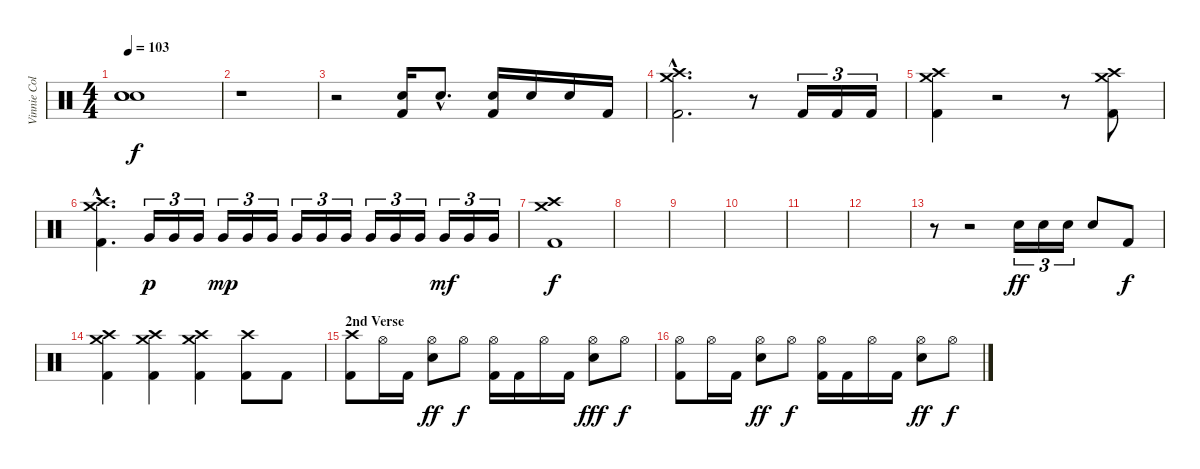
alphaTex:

\track ("Vinnie Colaiuta" "Vinnie Col") {instrument percussion}
\staff {score}
\articulation defaults
\ts (4 4)
\tempo 103
\clef neutral
\ks c
("Snare (hit)"{t} "Snare (hit)"{t} "Snare (hit)"{t}).1{dy f} |
r.1 |
r.2 ("Electric Snare (hit)" "Kick (hit) 2").16 "Electric Snare (hit)"{hac}.8{d} ("Electric Snare (hit)" "Kick (hit) 2").16 "Electric Snare (hit)".16 "Electric Snare (hit)".16 "Kick (hit) 2".16 |
("Crash high (hit)"{hac} "Crash medium (hit)"{hac} "Kick (hit) 2"{hac}).2{d} r.8 "Kick (hit) 2".16{tu (3 2)} "Kick (hit) 2".16{tu (3 2)} "Kick (hit) 2".16{tu (3 2)} |
("Crash high (hit)" "Crash medium (hit)" "Kick (hit) 2").4 r.2 r.8 ("Crash medium (hit)" "Crash high (hit)" "Kick (hit) 2").8 |
("Crash high (hit)"{hac} "Crash medium (hit)"{hac} "Kick (hit) 2"{hac}).4{d} "Very Low Tom (hit)".16{tu (3 2) dy p} "Very Low Tom (hit)".16{tu (3 2)} "Very Low Tom (hit)".16{tu (3 2)} "Very Low Tom (hit)".16{tu (3 2) dy mp} "Very Low Tom (hit)".16{tu (3 2)} "Very Low Tom (hit)".16{tu (3 2)} "Very Low Tom (hit)".16{tu (3 2)} "Very Low Tom (hit)".16{tu (3 2)} "Very Low Tom (hit)".16{tu (3 2)} "Very Low Tom (hit)".16{tu (3 2)} "Very Low Tom (hit)".16{tu (3 2)} "Very Low Tom (hit)".16{tu (3 2)} "Very Low Tom (hit)".16{tu (3 2) dy mf} "Very Low Tom (hit)".16{tu (3 2)} "Very Low Tom (hit)".16{tu (3 2)} |
("Crash high (hit)" "Crash medium (hit)" "Kick (hit) 2").1{dy f} |
|
|
|
|
|
r.8 r.2 "Electric Snare (hit)".16{tu (3 2) dy ff} "Electric Snare (hit)".16{tu (3 2)} "Electric Snare (hit)".16{tu (3 2)} "Electric Snare (hit)".8 "Kick (hit) 2".8{dy f} |
("Crash high (hit)" "Crash medium (hit)" "Kick (hit) 2").4 ("Crash high (hit)" "Crash medium (hit)" "Kick (hit) 2").4 ("Crash high (hit)" "Crash medium (hit)" "Kick (hit) 2").4 ("Crash high (hit)" "Kick (hit) 2").8 "Kick (hit) 2".8 |
\section ("" "2nd Verse")
("Crash high (hit)" "Kick (hit) 2").8 "Hi-Hat (open)".16 "Kick (hit) 2".16 ("Hi-Hat (open)" "Electric Snare (hit)").8{dy ff} "Hi-Hat (open)".8{dy f} ("Hi-Hat (open)" "Kick (hit) 2").16 "Kick (hit) 2".16 "Hi-Hat (open)".16 "Kick (hit) 2".16 ("Hi-Hat (open)" "Electric Snare (hit)").8{dy fff} "Hi-Hat (open)".8{dy f} |
("Hi-Hat (open)" "Kick (hit) 2").8 "Hi-Hat (open)".16 "Kick (hit) 2".16 ("Hi-Hat (open)" "Electric Snare (hit)").8{dy ff} "Hi-Hat (open)".8{dy f} ("Hi-Hat (open)" "Kick (hit) 2").16 "Kick (hit) 2".16 "Hi-Hat (open)".16 "Kick (hit) 2".16 ("Hi-Hat (open)" "Electric Snare (hit)").8{dy ff} "Hi-Hat (open)".8{dy f}
